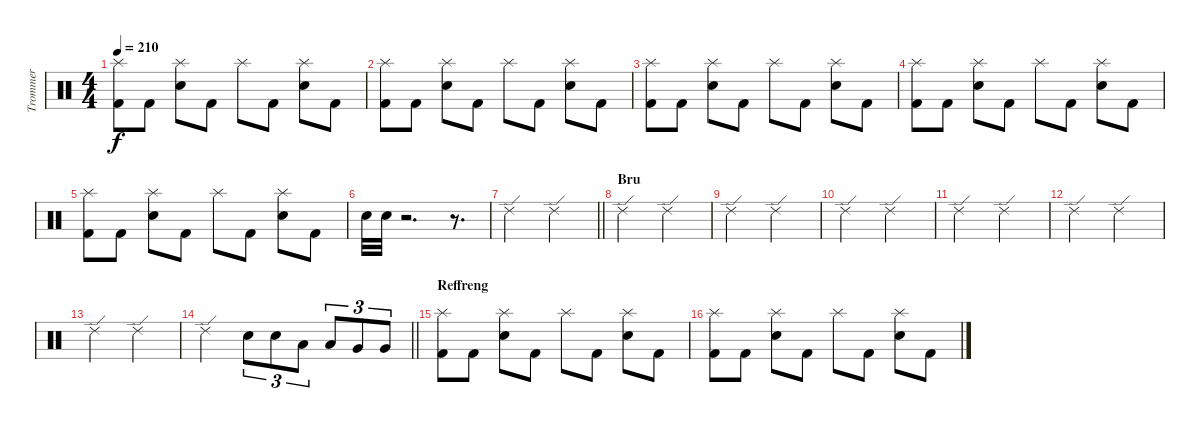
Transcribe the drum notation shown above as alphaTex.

\track ("Trommer" "Trommer") {instrument percussion}
\staff {score}
\articulation defaults
\ts (4 4)
\tempo 210
\clef neutral
\ks c
("Splash (hit)" "Kick (hit) 2").8{dy f} "Kick (hit) 2".8 ("Splash (hit)" "Snare (hit) 2").8 "Kick (hit) 2".8 "Splash (hit)".8 "Kick (hit) 2".8 ("Splash (hit)" "Snare (hit) 2").8 "Kick (hit) 2".8 |
("Splash (hit)" "Kick (hit) 2").8 "Kick (hit) 2".8 ("Splash (hit)" "Snare (hit) 2").8 "Kick (hit) 2".8 "Splash (hit)".8 "Kick (hit) 2".8 ("Splash (hit)" "Snare (hit) 2").8 "Kick (hit) 2".8 |
("Splash (hit)" "Kick (hit) 2").8 "Kick (hit) 2".8 ("Splash (hit)" "Snare (hit) 2").8 "Kick (hit) 2".8 "Splash (hit)".8 "Kick (hit) 2".8 ("Splash (hit)" "Snare (hit) 2").8 "Kick (hit) 2".8 |
("Splash (hit)" "Kick (hit) 2").8 "Kick (hit) 2".8 ("Splash (hit)" "Snare (hit) 2").8 "Kick (hit) 2".8 "Splash (hit)".8 "Kick (hit) 2".8 ("Splash (hit)" "Snare (hit) 2").8 "Kick (hit) 2".8 |
("Splash (hit)" "Kick (hit) 2").8 "Kick (hit) 2".8 ("Splash (hit)" "Snare (hit) 2").8 "Kick (hit) 2".8 "Splash (hit)".8 "Kick (hit) 2".8 ("Splash (hit)" "Snare (hit) 2").8 "Kick (hit) 2".8 |
"Snare (hit) 2".32 "Snare (hit) 2".32 r.2{d} r.8{d} |
\barLineRight lightlight "Ride (edge) 2".2 "Ride (edge) 2".2
|
\section ("" "Bru")
"Ride (edge) 2".2 "Ride (edge) 2".2 |
"Ride (edge) 2".2 "Ride (edge) 2".2 |
"Ride (edge) 2".2 "Ride (edge) 2".2 |
"Ride (edge) 2".2 "Ride (edge) 2".2 |
"Ride (edge) 2".2 "Ride (edge) 2".2 |
"Ride (edge) 2".2 "Ride (edge) 2".2 |
\barLineRight lightlight "Ride (edge) 2".2 "Snare (hit) 2".8{tu (3 2)} "Snare (hit) 2".8{tu (3 2)} "Low Tom (hit)".8{tu (3 2)} "Low Tom (hit)".8{tu (3 2)} "Very Low Tom (hit)".8{tu (3 2)} "Very Low Tom (hit)".8{tu (3 2)}
|
\section ("" "Reffreng")
("Splash (hit)" "Kick (hit) 2").8 "Kick (hit) 2".8 ("Splash (hit)" "Snare (hit) 2").8 "Kick (hit) 2".8 "Splash (hit)".8 "Kick (hit) 2".8 ("Splash (hit)" "Snare (hit) 2").8 "Kick (hit) 2".8 |
("Splash (hit)" "Kick (hit) 2").8 "Kick (hit) 2".8 ("Splash (hit)" "Snare (hit) 2").8 "Kick (hit) 2".8 "Splash (hit)".8 "Kick (hit) 2".8 ("Splash (hit)" "Snare (hit) 2").8 "Kick (hit) 2".8
